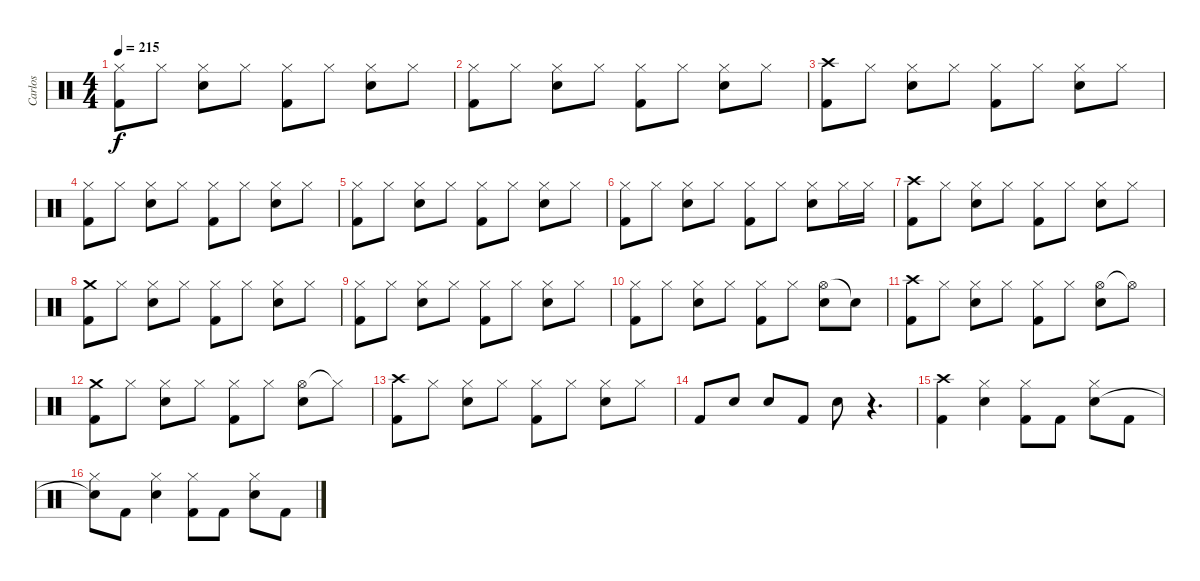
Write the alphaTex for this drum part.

\track ("Carlos" "Carlos") {instrument percussion}
\staff {score}
\articulation defaults
\ts (4 4)
\tempo 215
\clef neutral
\ks c
("Hi-Hat (closed)" "Kick (hit) 2").8{dy f} "Hi-Hat (closed)".8 ("Hi-Hat (closed)" "Snare (hit) 2").8 "Hi-Hat (closed)".8 ("Hi-Hat (closed)" "Kick (hit) 2").8 "Hi-Hat (closed)".8 ("Hi-Hat (closed)" "Snare (hit) 2").8 "Hi-Hat (closed)".8 |
("Hi-Hat (closed)" "Kick (hit) 2").8 "Hi-Hat (closed)".8 ("Hi-Hat (closed)" "Snare (hit) 2").8 "Hi-Hat (closed)".8 ("Hi-Hat (closed)" "Kick (hit) 2").8 "Hi-Hat (closed)".8 ("Hi-Hat (closed)" "Snare (hit) 2").8 "Hi-Hat (closed)".8 |
("Crash high (hit)" "Kick (hit) 2").8 "Hi-Hat (closed)".8 ("Hi-Hat (closed)" "Snare (hit) 2").8 "Hi-Hat (closed)".8 ("Hi-Hat (closed)" "Kick (hit) 2").8 "Hi-Hat (closed)".8 ("Hi-Hat (closed)" "Snare (hit) 2").8 "Hi-Hat (closed)".8 |
("Hi-Hat (closed)" "Kick (hit) 2").8 "Hi-Hat (closed)".8 ("Hi-Hat (closed)" "Snare (hit) 2").8 "Hi-Hat (closed)".8 ("Hi-Hat (closed)" "Kick (hit) 2").8 "Hi-Hat (closed)".8 ("Hi-Hat (closed)" "Snare (hit) 2").8 "Hi-Hat (closed)".8 |
("Hi-Hat (closed)" "Kick (hit) 2").8 "Hi-Hat (closed)".8 ("Hi-Hat (closed)" "Snare (hit) 2").8 "Hi-Hat (closed)".8 ("Hi-Hat (closed)" "Kick (hit) 2").8 "Hi-Hat (closed)".8 ("Hi-Hat (closed)" "Snare (hit) 2").8 "Hi-Hat (closed)".8 |
("Hi-Hat (closed)" "Kick (hit) 2").8 "Hi-Hat (closed)".8 ("Hi-Hat (closed)" "Snare (hit) 2").8 "Hi-Hat (closed)".8 ("Hi-Hat (closed)" "Kick (hit) 2").8 "Hi-Hat (closed)".8 ("Hi-Hat (closed)" "Snare (hit) 2").8 "Hi-Hat (closed)".16 "Hi-Hat (closed)".16 |
("Crash high (hit)" "Kick (hit) 2").8 "Hi-Hat (closed)".8 ("Hi-Hat (closed)" "Snare (hit) 2").8 "Hi-Hat (closed)".8 ("Hi-Hat (closed)" "Kick (hit) 2").8 "Hi-Hat (closed)".8 ("Hi-Hat (closed)" "Snare (hit) 2").8 "Hi-Hat (closed)".8 |
("Crash medium (hit)" "Kick (hit) 2").8 "Hi-Hat (closed)".8 ("Hi-Hat (closed)" "Snare (hit) 2").8 "Hi-Hat (closed)".8 ("Hi-Hat (closed)" "Kick (hit) 2").8 "Hi-Hat (closed)".8 ("Hi-Hat (closed)" "Snare (hit) 2").8 "Hi-Hat (closed)".8 |
("Hi-Hat (closed)" "Kick (hit) 2").8 "Hi-Hat (closed)".8 ("Hi-Hat (closed)" "Snare (hit) 2").8 "Hi-Hat (closed)".8 ("Hi-Hat (closed)" "Kick (hit) 2").8 "Hi-Hat (closed)".8 ("Hi-Hat (closed)" "Snare (hit) 2").8 "Hi-Hat (closed)".8 |
("Hi-Hat (closed)" "Kick (hit) 2").8 "Hi-Hat (closed)".8 ("Hi-Hat (closed)" "Snare (hit) 2").8 "Hi-Hat (closed)".8 ("Hi-Hat (closed)" "Kick (hit) 2").8 "Hi-Hat (closed)".8 ("Hi-Hat (open)" "Snare (hit) 2").8 "Snare (hit)"{t}.8 |
("Crash high (hit)" "Kick (hit) 2").8 "Hi-Hat (closed)".8 ("Hi-Hat (closed)" "Snare (hit) 2").8 "Hi-Hat (closed)".8 ("Hi-Hat (closed)" "Kick (hit) 2").8 "Hi-Hat (closed)".8 ("Hi-Hat (open)" "Snare (hit) 2").8 "Hi-Hat (open)"{t}.8 |
("Crash medium (hit)" "Kick (hit) 2").8 "Hi-Hat (closed)".8 ("Hi-Hat (closed)" "Snare (hit) 2").8 "Hi-Hat (closed)".8 ("Hi-Hat (closed)" "Kick (hit) 2").8 "Hi-Hat (closed)".8 ("Hi-Hat (open)" "Snare (hit) 2").8 "Hi-Hat (closed)"{t}.8 |
("Crash high (hit)" "Kick (hit) 2").8 "Hi-Hat (closed)".8 ("Hi-Hat (closed)" "Snare (hit) 2").8 "Hi-Hat (closed)".8 ("Hi-Hat (closed)" "Kick (hit) 2").8 "Hi-Hat (closed)".8 ("Hi-Hat (closed)" "Snare (hit) 2").8 "Hi-Hat (closed)".8 |
"Kick (hit) 2".8 "Snare (hit) 2".8 "Snare (hit) 2".8 "Kick (hit) 2".8 "Snare (hit) 2".8 r.4{d} |
("Crash high (hit)" "Kick (hit) 2").4 ("Hi-Hat (closed)" "Snare (hit) 2").4 ("Hi-Hat (closed)" "Kick (hit) 2").8 "Kick (hit) 2".8 ("Hi-Hat (closed)" "Snare (hit) 2").8 "Kick (hit) 2".8 |
("Hi-Hat (closed)" "Snare (hit)"{t}).8 "Kick (hit) 2".8 ("Hi-Hat (closed)" "Snare (hit) 2").4 ("Hi-Hat (closed)" "Kick (hit) 2").8 "Kick (hit) 2".8 ("Hi-Hat (closed)" "Snare (hit) 2").8 "Kick (hit) 2".8
